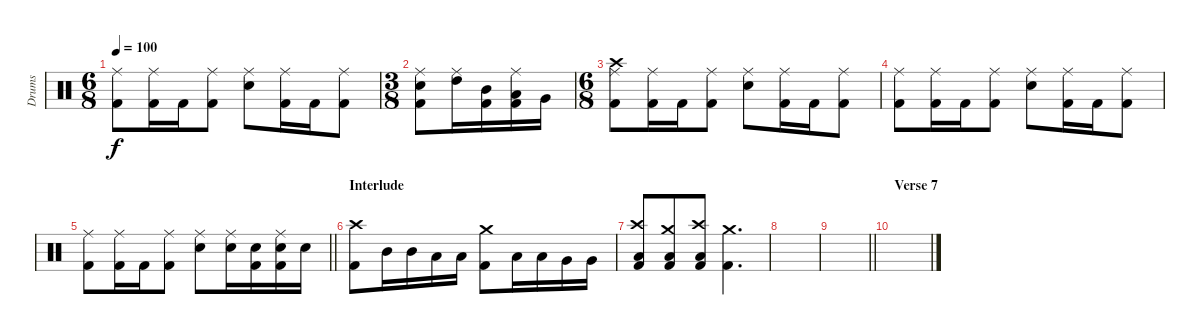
\track ("Drums" "Drums") {instrument percussion}
\staff {score}
\articulation defaults
\ts (6 8)
\tempo 100
\clef neutral
\ks c
("Ride (middle)" "Kick (hit) 2").8{dy f} ("Ride (middle)" "Kick (hit) 2").16 "Kick (hit) 2".16 ("Ride (middle)" "Kick (hit) 2").8 ("Ride (middle)" "Snare (hit) 2").8 ("Ride (middle)" "Kick (hit) 2").16 "Kick (hit) 2".16 ("Ride (middle)" "Kick (hit) 2").8 |
\ts (3 8)
("Ride (middle)" "Snare (hit) 2" "Kick (hit) 2").8 ("Ride (middle)" "High Tom (hit)").16 ("Mid Tom (hit)" "Kick (hit) 2").16 ("Ride (middle)" "Low Tom (hit)" "Kick (hit) 2").16 "Very Low Tom (hit)".16 |
\ts (6 8)
("Crash high (hit)" "Ride (middle)" "Kick (hit) 2").8 ("Ride (middle)" "Kick (hit) 2").16 "Kick (hit) 2".16 ("Ride (middle)" "Kick (hit) 2").8 ("Ride (middle)" "Snare (hit) 2").8 ("Ride (middle)" "Kick (hit) 2").16 "Kick (hit) 2".16 ("Ride (middle)" "Kick (hit) 2").8 |
("Ride (middle)" "Kick (hit) 2").8 ("Ride (middle)" "Kick (hit) 2").16 "Kick (hit) 2".16 ("Ride (middle)" "Kick (hit) 2").8 ("Ride (middle)" "Snare (hit) 2").8 ("Ride (middle)" "Kick (hit) 2").16 "Kick (hit) 2".16 ("Ride (middle)" "Kick (hit) 2").8 |
\barLineRight lightlight
("Ride (middle)" "Kick (hit) 2").8 ("Ride (middle)" "Kick (hit) 2").16 "Kick (hit) 2".16 ("Ride (middle)" "Kick (hit) 2").8 ("Ride (middle)" "Snare (hit) 2").8 ("Ride (middle)" "Snare (hit) 2").16 ("Snare (hit) 2" "Kick (hit) 2").16 ("Ride (middle)" "Snare (hit) 2" "Kick (hit) 2").16 "Snare (hit) 2".16 |
\section ("" "Interlude")
("Crash high (hit)" "Kick (hit) 2").8 "Mid Tom (hit)".16 "Mid Tom (hit)".16 "Low Tom (hit)".16 "Low Tom (hit)".16 ("Crash medium (hit)" "Kick (hit) 2").8 "Low Tom (hit)".16 "Low Tom (hit)".16 "Very Low Tom (hit)".16 "Very Low Tom (hit)".16 |
("Crash high (hit)" "Low Floor Tom (hit)" "Kick (hit) 2").8 ("Crash medium (hit)" "Low Floor Tom (hit)" "Kick (hit) 2").8 ("Crash high (hit)" "Low Floor Tom (hit)" "Kick (hit) 2").8 ("Crash medium (hit)" "Kick (hit) 2").4{d} |
|
\barLineRight lightlight
|
\section ("" "Verse 7")
